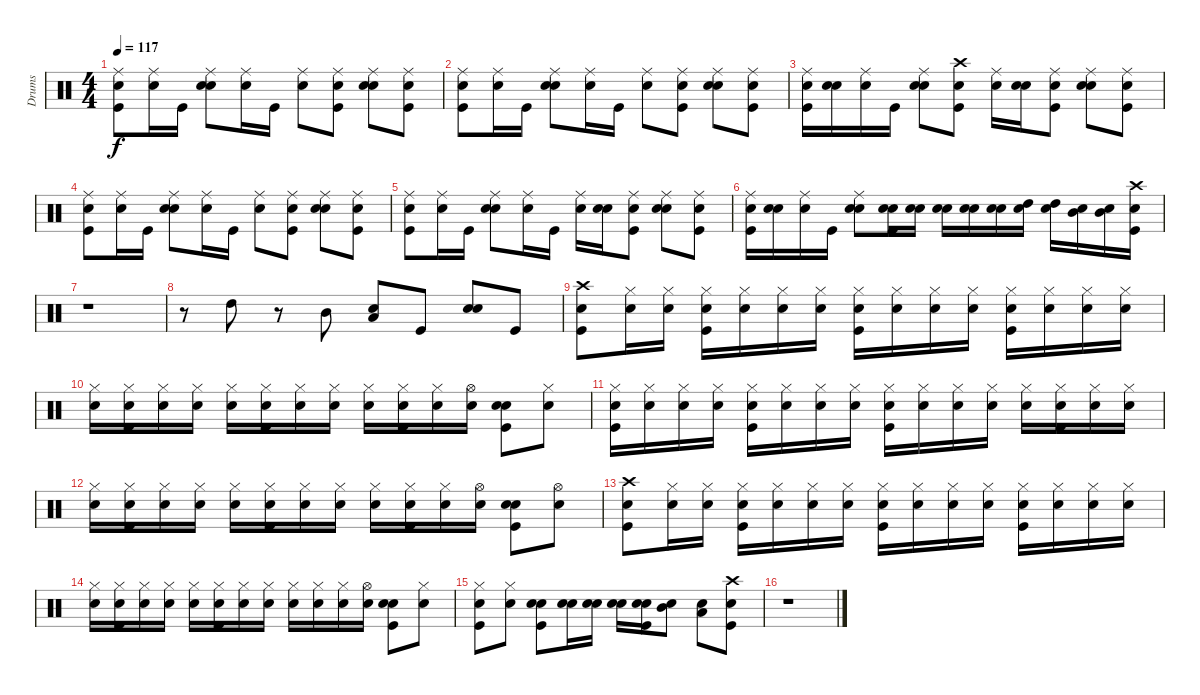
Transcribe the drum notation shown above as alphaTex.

\track ("Drums" "Drums") {instrument percussion}
\staff {score}
\articulation defaults
\ts (4 4)
\tempo 117
\clef neutral
\ks c
("Snare (hit)" "Kick (hit)" "Ride (middle)").8{dy f} ("Snare (hit)" "Ride (middle)").16 "Kick (hit)".16 ("Snare (hit)" "Electric Snare (hit)" "Ride (middle)").8 ("Snare (hit)" "Ride (middle)").16 "Kick (hit)".16 ("Snare (hit)" "Ride (middle)").8 ("Snare (hit)" "Kick (hit)" "Ride (middle)").8 ("Snare (hit)" "Electric Snare (hit)" "Ride (middle)").8 ("Snare (hit)" "Kick (hit)" "Ride (middle)").8 |
("Snare (hit)" "Kick (hit)" "Ride (middle)").8 ("Snare (hit)" "Ride (middle)").16 "Kick (hit)".16 ("Snare (hit)" "Electric Snare (hit)" "Ride (middle)").8 ("Snare (hit)" "Ride (middle)").16 "Kick (hit)".16 ("Snare (hit)" "Ride (middle)").8 ("Snare (hit)" "Kick (hit)" "Ride (middle)").8 ("Snare (hit)" "Electric Snare (hit)" "Ride (middle)").8 ("Snare (hit)" "Kick (hit)" "Ride (middle)").8 |
("Snare (hit)" "Kick (hit)" "Ride (middle)").16 ("Snare (hit)" "Electric Snare (hit)").16 ("Snare (hit)" "Ride (middle)").16 "Kick (hit)".16 ("Snare (hit)" "Electric Snare (hit)" "Ride (middle)").8 ("Snare (hit)" "Kick (hit)" "Crash high (hit)").8 ("Snare (hit)" "Ride (middle)").16 ("Snare (hit)" "Electric Snare (hit)").16 ("Snare (hit)" "Kick (hit)" "Ride (middle)").8 ("Snare (hit)" "Electric Snare (hit)" "Ride (middle)").8 ("Snare (hit)" "Kick (hit)" "Ride (middle)").8 |
("Snare (hit)" "Kick (hit)" "Ride (middle)").8 ("Snare (hit)" "Ride (middle)").16 "Kick (hit)".16 ("Snare (hit)" "Electric Snare (hit)" "Ride (middle)").8 ("Snare (hit)" "Ride (middle)").16 "Kick (hit)".16 ("Snare (hit)" "Ride (middle)").8 ("Snare (hit)" "Kick (hit)" "Ride (middle)").8 ("Snare (hit)" "Electric Snare (hit)" "Ride (middle)").8 ("Snare (hit)" "Kick (hit)" "Ride (middle)").8 |
("Snare (hit)" "Kick (hit)" "Ride (middle)").8 ("Snare (hit)" "Ride (middle)").16 "Kick (hit)".16 ("Snare (hit)" "Electric Snare (hit)" "Ride (middle)").8 ("Snare (hit)" "Ride (middle)").16 "Kick (hit)".16 ("Snare (hit)" "Ride (middle)").16 ("Snare (hit)" "Electric Snare (hit)").16 ("Snare (hit)" "Kick (hit)" "Ride (middle)").8 ("Snare (hit)" "Electric Snare (hit)" "Ride (middle)").8 ("Snare (hit)" "Kick (hit)" "Ride (middle)").8 |
("Snare (hit)" "Kick (hit)" "Ride (middle)").16 ("Snare (hit)" "Electric Snare (hit)").16 ("Snare (hit)" "Ride (middle)").16 "Kick (hit)".16 ("Snare (hit)" "Electric Snare (hit)" "Ride (middle)").8 ("Snare (hit)" "Kick (hit)" "Electric Snare (hit)").16 ("Snare (hit)" "Electric Snare (hit)").16 ("Snare (hit)" "Electric Snare (hit)").16 ("Snare (hit)" "Electric Snare (hit)").16 ("Snare (hit)" "Electric Snare (hit)").16 ("Snare (hit)" "High Tom (hit)").16 ("Snare (hit)" "High Tom (hit)").16 ("Snare (hit)" "Mid Tom (hit)").16 ("Snare (hit)" "Mid Tom (hit)").16 ("Snare (hit)" "Kick (hit)" "Crash high (hit)").16 |
r.1 |
r.8 "High Tom (hit)".8 r.8 "Mid Tom (hit)".8 ("Snare (hit)" "Low Tom (hit)").8 "Kick (hit)".8 ("Snare (hit)" "Electric Snare (hit)").8 "Kick (hit)".8 |
("Snare (hit)" "Kick (hit)" "Crash high (hit)").8 ("Snare (hit)" "Hi-Hat (closed)").16 ("Snare (hit)" "Hi-Hat (closed)").16 ("Snare (hit)" "Kick (hit)" "Hi-Hat (closed)").16 ("Snare (hit)" "Hi-Hat (closed)").16 ("Snare (hit)" "Hi-Hat (closed)").16 ("Snare (hit)" "Hi-Hat (closed)").16 ("Snare (hit)" "Kick (hit)" "Hi-Hat (closed)").16 ("Snare (hit)" "Hi-Hat (closed)").16 ("Snare (hit)" "Hi-Hat (closed)").16 ("Snare (hit)" "Hi-Hat (closed)").16 ("Snare (hit)" "Kick (hit)" "Hi-Hat (closed)").16 ("Snare (hit)" "Hi-Hat (closed)").16 ("Snare (hit)" "Hi-Hat (closed)").16 ("Snare (hit)" "Hi-Hat (closed)").16 |
("Snare (hit)" "Hi-Hat (closed)").16 ("Snare (hit)" "Kick (hit)" "Hi-Hat (closed)").16 ("Snare (hit)" "Hi-Hat (closed)").16 ("Snare (hit)" "Hi-Hat (closed)").16 ("Snare (hit)" "Hi-Hat (closed)").16 ("Snare (hit)" "Kick (hit)" "Hi-Hat (closed)").16 ("Snare (hit)" "Hi-Hat (closed)").16 ("Snare (hit)" "Hi-Hat (closed)").16 ("Snare (hit)" "Hi-Hat (closed)").16 ("Snare (hit)" "Kick (hit)" "Hi-Hat (closed)").16 ("Snare (hit)" "Hi-Hat (closed)").16 ("Snare (hit)" "Hi-Hat (open)").16 ("Snare (hit)" "Kick (hit)" "Electric Snare (hit)").8 ("Snare (hit)" "Hi-Hat (closed)").8 |
("Snare (hit)" "Kick (hit)" "Hi-Hat (closed)").16 ("Snare (hit)" "Hi-Hat (closed)").16 ("Snare (hit)" "Hi-Hat (closed)").16 ("Snare (hit)" "Hi-Hat (closed)").16 ("Snare (hit)" "Kick (hit)" "Hi-Hat (closed)").16 ("Snare (hit)" "Hi-Hat (closed)").16 ("Snare (hit)" "Hi-Hat (closed)").16 ("Snare (hit)" "Hi-Hat (closed)").16 ("Snare (hit)" "Kick (hit)" "Hi-Hat (closed)").16 ("Snare (hit)" "Hi-Hat (closed)").16 ("Snare (hit)" "Hi-Hat (closed)").16 ("Snare (hit)" "Hi-Hat (closed)").16 ("Snare (hit)" "Hi-Hat (closed)").16 ("Snare (hit)" "Kick (hit)" "Hi-Hat (closed)").16 ("Snare (hit)" "Hi-Hat (closed)").16 ("Snare (hit)" "Hi-Hat (closed)").16 |
("Snare (hit)" "Hi-Hat (closed)").16 ("Snare (hit)" "Kick (hit)" "Hi-Hat (closed)").16 ("Snare (hit)" "Hi-Hat (closed)").16 ("Snare (hit)" "Hi-Hat (closed)").16 ("Snare (hit)" "Hi-Hat (closed)").16 ("Snare (hit)" "Kick (hit)" "Hi-Hat (closed)").16 ("Snare (hit)" "Hi-Hat (closed)").16 ("Snare (hit)" "Hi-Hat (closed)").16 ("Snare (hit)" "Hi-Hat (closed)").16 ("Snare (hit)" "Kick (hit)" "Hi-Hat (closed)").16 ("Snare (hit)" "Hi-Hat (closed)").16 ("Snare (hit)" "Hi-Hat (open)").16 ("Snare (hit)" "Kick (hit)" "Electric Snare (hit)").8 ("Snare (hit)" "Hi-Hat (open)").8 |
("Snare (hit)" "Kick (hit)" "Crash high (hit)").8 ("Snare (hit)" "Hi-Hat (closed)").16 ("Snare (hit)" "Hi-Hat (closed)").16 ("Snare (hit)" "Kick (hit)" "Hi-Hat (closed)").16 ("Snare (hit)" "Hi-Hat (closed)").16 ("Snare (hit)" "Hi-Hat (closed)").16 ("Snare (hit)" "Hi-Hat (closed)").16 ("Snare (hit)" "Kick (hit)" "Hi-Hat (closed)").16 ("Snare (hit)" "Hi-Hat (closed)").16 ("Snare (hit)" "Hi-Hat (closed)").16 ("Snare (hit)" "Hi-Hat (closed)").16 ("Snare (hit)" "Kick (hit)" "Hi-Hat (closed)").16 ("Snare (hit)" "Hi-Hat (closed)").16 ("Snare (hit)" "Hi-Hat (closed)").16 ("Snare (hit)" "Hi-Hat (closed)").16 |
("Snare (hit)" "Hi-Hat (closed)").16 ("Snare (hit)" "Kick (hit)" "Hi-Hat (closed)").16 ("Snare (hit)" "Hi-Hat (closed)").16 ("Snare (hit)" "Hi-Hat (closed)").16 ("Snare (hit)" "Hi-Hat (closed)").16 ("Snare (hit)" "Kick (hit)" "Hi-Hat (closed)").16 ("Snare (hit)" "Hi-Hat (closed)").16 ("Snare (hit)" "Hi-Hat (closed)").16 ("Snare (hit)" "Hi-Hat (closed)").16 ("Snare (hit)" "Hi-Hat (closed)").16 ("Snare (hit)" "Hi-Hat (closed)").16 ("Snare (hit)" "Hi-Hat (open)").16 ("Snare (hit)" "Kick (hit)" "Electric Snare (hit)").8 ("Snare (hit)" "Hi-Hat (closed)").8 |
("Snare (hit)" "Kick (hit)" "Hi-Hat (closed)").8 ("Snare (hit)" "Hi-Hat (closed)").8 ("Snare (hit)" "Kick (hit)" "Electric Snare (hit)").8 ("Snare (hit)" "Electric Snare (hit)").16 ("Snare (hit)" "Electric Snare (hit)").16 ("Snare (hit)" "Electric Snare (hit)").16 ("Snare (hit)" "Kick (hit)" "Electric Snare (hit)").16 ("Snare (hit)" "Mid Tom (hit)").8 ("Snare (hit)" "Low Tom (hit)").8 ("Snare (hit)" "Kick (hit)" "Crash high (hit)").8 |
r.1
